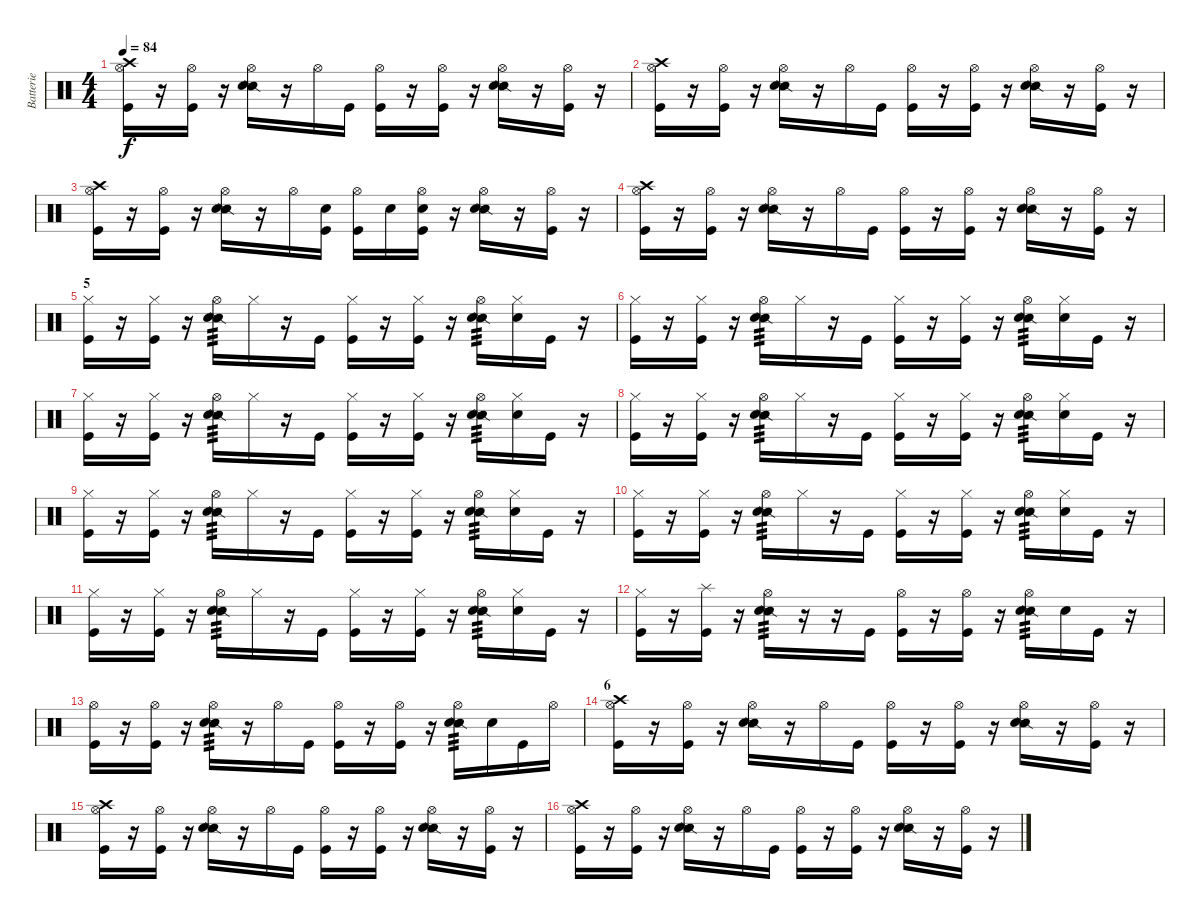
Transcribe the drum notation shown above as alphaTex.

\track ("Batterie" "Batterie") {instrument percussion}
\staff {score}
\articulation defaults
\ts (4 4)
\tempo 84
\clef neutral
\ks c
("Hi-Hat (open)" "Crash high (hit)" "Kick (hit)").16{dy f} r.16 ("Hi-Hat (open)" "Kick (hit)").16 r.16 ("Hi-Hat (open)" "Snare (side stick) 2" "Electric Snare (hit)").16 r.16 "Hi-Hat (open)".16 "Kick (hit)".16 ("Hi-Hat (open)" "Kick (hit)").16 r.16 ("Hi-Hat (open)" "Kick (hit)").16 r.16 ("Hi-Hat (open)" "Snare (side stick) 2" "Electric Snare (hit)").16 r.16 ("Hi-Hat (open)" "Kick (hit)").16 r.16 |
("Hi-Hat (open)" "Crash high (hit)" "Kick (hit)").16 r.16 ("Hi-Hat (open)" "Kick (hit)").16 r.16 ("Hi-Hat (open)" "Snare (side stick) 2" "Electric Snare (hit)").16 r.16 "Hi-Hat (open)".16 "Kick (hit)".16 ("Hi-Hat (open)" "Kick (hit)").16 r.16 ("Hi-Hat (open)" "Kick (hit)").16 r.16 ("Hi-Hat (open)" "Snare (side stick) 2" "Electric Snare (hit)").16 r.16 ("Hi-Hat (open)" "Kick (hit)").16 r.16 |
("Hi-Hat (open)" "Crash high (hit)" "Kick (hit)").16 r.16 ("Hi-Hat (open)" "Kick (hit)").16 r.16 ("Hi-Hat (open)" "Snare (side stick) 2" "Electric Snare (hit)").16 r.16 "Hi-Hat (open)".16 ("Electric Snare (hit)" "Kick (hit)").16 ("Hi-Hat (open)" "Kick (hit)").16 "Electric Snare (hit)".16 ("Hi-Hat (open)" "Electric Snare (hit)" "Kick (hit)").16 r.16 ("Hi-Hat (open)" "Snare (side stick) 2" "Electric Snare (hit)").16 r.16 ("Hi-Hat (open)" "Kick (hit)").16 r.16 |
("Hi-Hat (open)" "Crash high (hit)" "Kick (hit)").16 r.16 ("Hi-Hat (open)" "Kick (hit)").16 r.16 ("Hi-Hat (open)" "Snare (side stick) 2" "Electric Snare (hit)").16 r.16 "Hi-Hat (open)".16 "Kick (hit)".16 ("Hi-Hat (open)" "Kick (hit)").16 r.16 ("Hi-Hat (open)" "Kick (hit)").16 r.16 ("Hi-Hat (open)" "Snare (side stick) 2" "Electric Snare (hit)").16 r.16 ("Hi-Hat (open)" "Kick (hit)").16 r.16 |
\section ("" "5")
("Hi-Hat (closed)" "Kick (hit)").16 r.16 ("Hi-Hat (closed)" "Kick (hit)").16 r.16 ("Hi-Hat (open)" "Snare (side stick) 2" "Electric Snare (hit)").16{tp 3} "Hi-Hat (closed)".16 r.16 "Kick (hit)".16 ("Hi-Hat (closed)" "Kick (hit)").16 r.16 ("Hi-Hat (closed)" "Kick (hit)").16 r.16 ("Hi-Hat (open)" "Snare (side stick) 2" "Electric Snare (hit)").16{tp 3} ("Hi-Hat (closed)" "Snare (hit) 2").16 "Kick (hit)".16 r.16 |
("Hi-Hat (closed)" "Kick (hit)").16 r.16 ("Hi-Hat (closed)" "Kick (hit)").16 r.16 ("Hi-Hat (open)" "Snare (side stick) 2" "Electric Snare (hit)").16{tp 3} "Hi-Hat (closed)".16 r.16 "Kick (hit)".16 ("Hi-Hat (closed)" "Kick (hit)").16 r.16 ("Hi-Hat (closed)" "Kick (hit)").16 r.16 ("Hi-Hat (open)" "Snare (side stick) 2" "Electric Snare (hit)").16{tp 3} ("Hi-Hat (closed)" "Snare (hit) 2").16 "Kick (hit)".16 r.16 |
("Hi-Hat (closed)" "Kick (hit)").16 r.16 ("Hi-Hat (closed)" "Kick (hit)").16 r.16 ("Hi-Hat (open)" "Snare (side stick) 2" "Electric Snare (hit)").16{tp 3} "Hi-Hat (closed)".16 r.16 "Kick (hit)".16 ("Hi-Hat (closed)" "Kick (hit)").16 r.16 ("Hi-Hat (closed)" "Kick (hit)").16 r.16 ("Hi-Hat (open)" "Snare (side stick) 2" "Electric Snare (hit)").16{tp 3} ("Hi-Hat (closed)" "Snare (hit) 2").16 "Kick (hit)".16 r.16 |
("Hi-Hat (closed)" "Kick (hit)").16 r.16 ("Hi-Hat (closed)" "Kick (hit)").16 r.16 ("Hi-Hat (open)" "Snare (side stick) 2" "Electric Snare (hit)").16{tp 3} "Hi-Hat (closed)".16 r.16 "Kick (hit)".16 ("Hi-Hat (closed)" "Kick (hit)").16 r.16 ("Hi-Hat (closed)" "Kick (hit)").16 r.16 ("Hi-Hat (open)" "Snare (side stick) 2" "Electric Snare (hit)").16{tp 3} ("Hi-Hat (closed)" "Snare (hit) 2").16 "Kick (hit)".16 r.16 |
("Hi-Hat (closed)" "Kick (hit)").16 r.16 ("Hi-Hat (closed)" "Kick (hit)").16 r.16 ("Hi-Hat (open)" "Snare (side stick) 2" "Electric Snare (hit)").16{tp 3} "Hi-Hat (closed)".16 r.16 "Kick (hit)".16 ("Hi-Hat (closed)" "Kick (hit)").16 r.16 ("Hi-Hat (closed)" "Kick (hit)").16 r.16 ("Hi-Hat (open)" "Snare (side stick) 2" "Electric Snare (hit)").16{tp 3} ("Hi-Hat (closed)" "Snare (hit) 2").16 "Kick (hit)".16 r.16 |
("Hi-Hat (closed)" "Kick (hit)").16 r.16 ("Hi-Hat (closed)" "Kick (hit)").16 r.16 ("Hi-Hat (open)" "Snare (side stick) 2" "Electric Snare (hit)").16{tp 3} "Hi-Hat (closed)".16 r.16 "Kick (hit)".16 ("Hi-Hat (closed)" "Kick (hit)").16 r.16 ("Hi-Hat (closed)" "Kick (hit)").16 r.16 ("Hi-Hat (open)" "Snare (side stick) 2" "Electric Snare (hit)").16{tp 3} ("Hi-Hat (closed)" "Snare (hit) 2").16 "Kick (hit)".16 r.16 |
("Hi-Hat (closed)" "Kick (hit)").16 r.16 ("Hi-Hat (closed)" "Kick (hit)").16 r.16 ("Hi-Hat (open)" "Snare (side stick) 2" "Electric Snare (hit)").16{tp 3} "Hi-Hat (closed)".16 r.16 "Kick (hit)".16 ("Hi-Hat (closed)" "Kick (hit)").16 r.16 ("Hi-Hat (closed)" "Kick (hit)").16 r.16 ("Hi-Hat (open)" "Snare (side stick) 2" "Electric Snare (hit)").16{tp 3} ("Hi-Hat (closed)" "Snare (hit) 2").16 "Kick (hit)".16 r.16 |
("Hi-Hat (closed)" "Kick (hit)").16 r.16 ("Splash (hit)" "Kick (hit)").16 r.16 ("Hi-Hat (open)" "Snare (side stick) 2" "Electric Snare (hit)").16{tp 3} r.16 r.16 "Kick (hit)".16 ("Hi-Hat (open)" "Kick (hit)").16 r.16 ("Hi-Hat (open)" "Kick (hit)").16 r.16 ("Hi-Hat (open)" "Snare (side stick) 2" "Electric Snare (hit)").16{tp 3} "Snare (hit) 2".16 "Kick (hit)".16 r.16 |
("Hi-Hat (open)" "Kick (hit)").16 r.16 ("Hi-Hat (open)" "Kick (hit)").16 r.16 ("Hi-Hat (open)" "Snare (side stick) 2" "Electric Snare (hit)").16{tp 3} r.16 "Hi-Hat (open)".16 "Kick (hit)".16 ("Hi-Hat (open)" "Kick (hit)").16 r.16 ("Hi-Hat (open)" "Kick (hit)").16 r.16 ("Hi-Hat (open)" "Snare (side stick) 2" "Electric Snare (hit)").16{tp 3} "Snare (hit) 2".16 "Kick (hit)".16 "Hi-Hat (open)".16 |
\section ("" "6")
("Hi-Hat (open)" "Crash high (hit)" "Kick (hit)").16 r.16 ("Hi-Hat (open)" "Kick (hit)").16 r.16 ("Hi-Hat (open)" "Snare (side stick) 2" "Electric Snare (hit)").16 r.16 "Hi-Hat (open)".16 "Kick (hit)".16 ("Hi-Hat (open)" "Kick (hit)").16 r.16 ("Hi-Hat (open)" "Kick (hit)").16 r.16 ("Hi-Hat (open)" "Snare (side stick) 2" "Electric Snare (hit)").16 r.16 ("Hi-Hat (open)" "Kick (hit)").16 r.16 |
("Hi-Hat (open)" "Crash high (hit)" "Kick (hit)").16 r.16 ("Hi-Hat (open)" "Kick (hit)").16 r.16 ("Hi-Hat (open)" "Snare (side stick) 2" "Electric Snare (hit)").16 r.16 "Hi-Hat (open)".16 "Kick (hit)".16 ("Hi-Hat (open)" "Kick (hit)").16 r.16 ("Hi-Hat (open)" "Kick (hit)").16 r.16 ("Hi-Hat (open)" "Snare (side stick) 2" "Electric Snare (hit)").16 r.16 ("Hi-Hat (open)" "Kick (hit)").16 r.16 |
("Hi-Hat (open)" "Crash high (hit)" "Kick (hit)").16 r.16 ("Hi-Hat (open)" "Kick (hit)").16 r.16 ("Hi-Hat (open)" "Snare (side stick) 2" "Electric Snare (hit)").16 r.16 "Hi-Hat (open)".16 "Kick (hit)".16 ("Hi-Hat (open)" "Kick (hit)").16 r.16 ("Hi-Hat (open)" "Kick (hit)").16 r.16 ("Hi-Hat (open)" "Snare (side stick) 2" "Electric Snare (hit)").16 r.16 ("Hi-Hat (open)" "Kick (hit)").16 r.16
